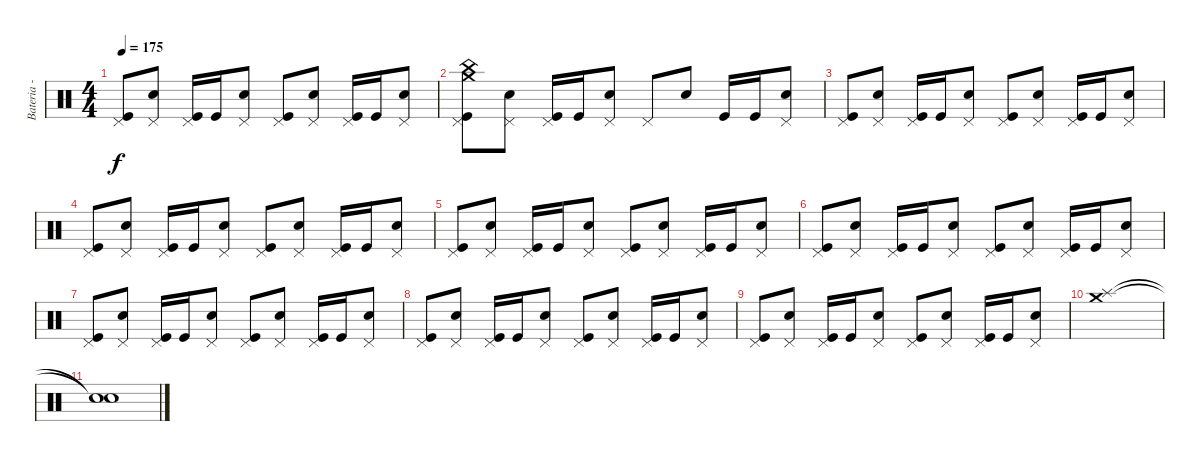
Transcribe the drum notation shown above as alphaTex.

\track ("Bateria - Larzon" "Bateria - ") {instrument percussion}
\staff {score}
\articulation defaults
\ts (4 4)
\tempo 175
\clef neutral
\ks c
("Kick (hit)" "Pedal Hi-Hat (hit)").8{dy f} ("Snare (hit) 2" "Pedal Hi-Hat (hit)").8 ("Kick (hit)" "Pedal Hi-Hat (hit)").16 "Kick (hit)".16 ("Snare (hit) 2" "Pedal Hi-Hat (hit)").8 ("Pedal Hi-Hat (hit)" "Kick (hit)").8 ("Snare (hit) 2" "Pedal Hi-Hat (hit)").8 ("Kick (hit)" "Pedal Hi-Hat (hit)").16 "Kick (hit)".16 ("Snare (hit) 2" "Pedal Hi-Hat (hit)").8 |
("China (hit)" "Crash medium (hit)" "Pedal Hi-Hat (hit)" "Kick (hit)").8 ("Snare (hit) 2" "Pedal Hi-Hat (hit)").8 ("Kick (hit)" "Pedal Hi-Hat (hit)").16 "Kick (hit)".16 ("Snare (hit) 2" "Pedal Hi-Hat (hit)").8 "Pedal Hi-Hat (hit)".8 "Snare (hit) 2".8 "Kick (hit)".16 "Kick (hit)".16 ("Snare (hit) 2" "Pedal Hi-Hat (hit)").8 |
("Kick (hit)" "Pedal Hi-Hat (hit)").8 ("Snare (hit) 2" "Pedal Hi-Hat (hit)").8 ("Kick (hit)" "Pedal Hi-Hat (hit)").16 "Kick (hit)".16 ("Snare (hit) 2" "Pedal Hi-Hat (hit)").8 ("Pedal Hi-Hat (hit)" "Kick (hit)").8 ("Snare (hit) 2" "Pedal Hi-Hat (hit)").8 ("Kick (hit)" "Pedal Hi-Hat (hit)").16 "Kick (hit)".16 ("Snare (hit) 2" "Pedal Hi-Hat (hit)").8 |
("Kick (hit)" "Pedal Hi-Hat (hit)").8 ("Snare (hit) 2" "Pedal Hi-Hat (hit)").8 ("Kick (hit)" "Pedal Hi-Hat (hit)").16 "Kick (hit)".16 ("Snare (hit) 2" "Pedal Hi-Hat (hit)").8 ("Pedal Hi-Hat (hit)" "Kick (hit)").8 ("Snare (hit) 2" "Pedal Hi-Hat (hit)").8 ("Kick (hit)" "Pedal Hi-Hat (hit)").16 "Kick (hit)".16 ("Snare (hit) 2" "Pedal Hi-Hat (hit)").8 |
("Kick (hit)" "Pedal Hi-Hat (hit)").8 ("Snare (hit) 2" "Pedal Hi-Hat (hit)").8 ("Kick (hit)" "Pedal Hi-Hat (hit)").16 "Kick (hit)".16 ("Snare (hit) 2" "Pedal Hi-Hat (hit)").8 ("Pedal Hi-Hat (hit)" "Kick (hit)").8 ("Snare (hit) 2" "Pedal Hi-Hat (hit)").8 ("Kick (hit)" "Pedal Hi-Hat (hit)").16 "Kick (hit)".16 ("Snare (hit) 2" "Pedal Hi-Hat (hit)").8 |
("Kick (hit)" "Pedal Hi-Hat (hit)").8 ("Snare (hit) 2" "Pedal Hi-Hat (hit)").8 ("Kick (hit)" "Pedal Hi-Hat (hit)").16 "Kick (hit)".16 ("Snare (hit) 2" "Pedal Hi-Hat (hit)").8 ("Pedal Hi-Hat (hit)" "Kick (hit)").8 ("Snare (hit) 2" "Pedal Hi-Hat (hit)").8 ("Kick (hit)" "Pedal Hi-Hat (hit)").16 "Kick (hit)".16 ("Snare (hit) 2" "Pedal Hi-Hat (hit)").8 |
("Kick (hit)" "Pedal Hi-Hat (hit)").8 ("Snare (hit) 2" "Pedal Hi-Hat (hit)").8 ("Kick (hit)" "Pedal Hi-Hat (hit)").16 "Kick (hit)".16 ("Snare (hit) 2" "Pedal Hi-Hat (hit)").8 ("Pedal Hi-Hat (hit)" "Kick (hit)").8 ("Snare (hit) 2" "Pedal Hi-Hat (hit)").8 ("Kick (hit)" "Pedal Hi-Hat (hit)").16 "Kick (hit)".16 ("Snare (hit) 2" "Pedal Hi-Hat (hit)").8 |
("Kick (hit)" "Pedal Hi-Hat (hit)").8 ("Snare (hit) 2" "Pedal Hi-Hat (hit)").8 ("Kick (hit)" "Pedal Hi-Hat (hit)").16 "Kick (hit)".16 ("Snare (hit) 2" "Pedal Hi-Hat (hit)").8 ("Pedal Hi-Hat (hit)" "Kick (hit)").8 ("Snare (hit) 2" "Pedal Hi-Hat (hit)").8 ("Kick (hit)" "Pedal Hi-Hat (hit)").16 "Kick (hit)".16 ("Snare (hit) 2" "Pedal Hi-Hat (hit)").8 |
("Kick (hit)" "Pedal Hi-Hat (hit)").8 ("Snare (hit) 2" "Pedal Hi-Hat (hit)").8 ("Kick (hit)" "Pedal Hi-Hat (hit)").16 "Kick (hit)".16 ("Snare (hit) 2" "Pedal Hi-Hat (hit)").8 ("Pedal Hi-Hat (hit)" "Kick (hit)").8 ("Snare (hit) 2" "Pedal Hi-Hat (hit)").8 ("Kick (hit)" "Pedal Hi-Hat (hit)").16 "Kick (hit)".16 ("Snare (hit) 2" "Pedal Hi-Hat (hit)").8 |
("Crash medium (hit)" "Splash (hit)").1 |
("Snare (hit)"{t} "Snare (hit)"{t}).1
